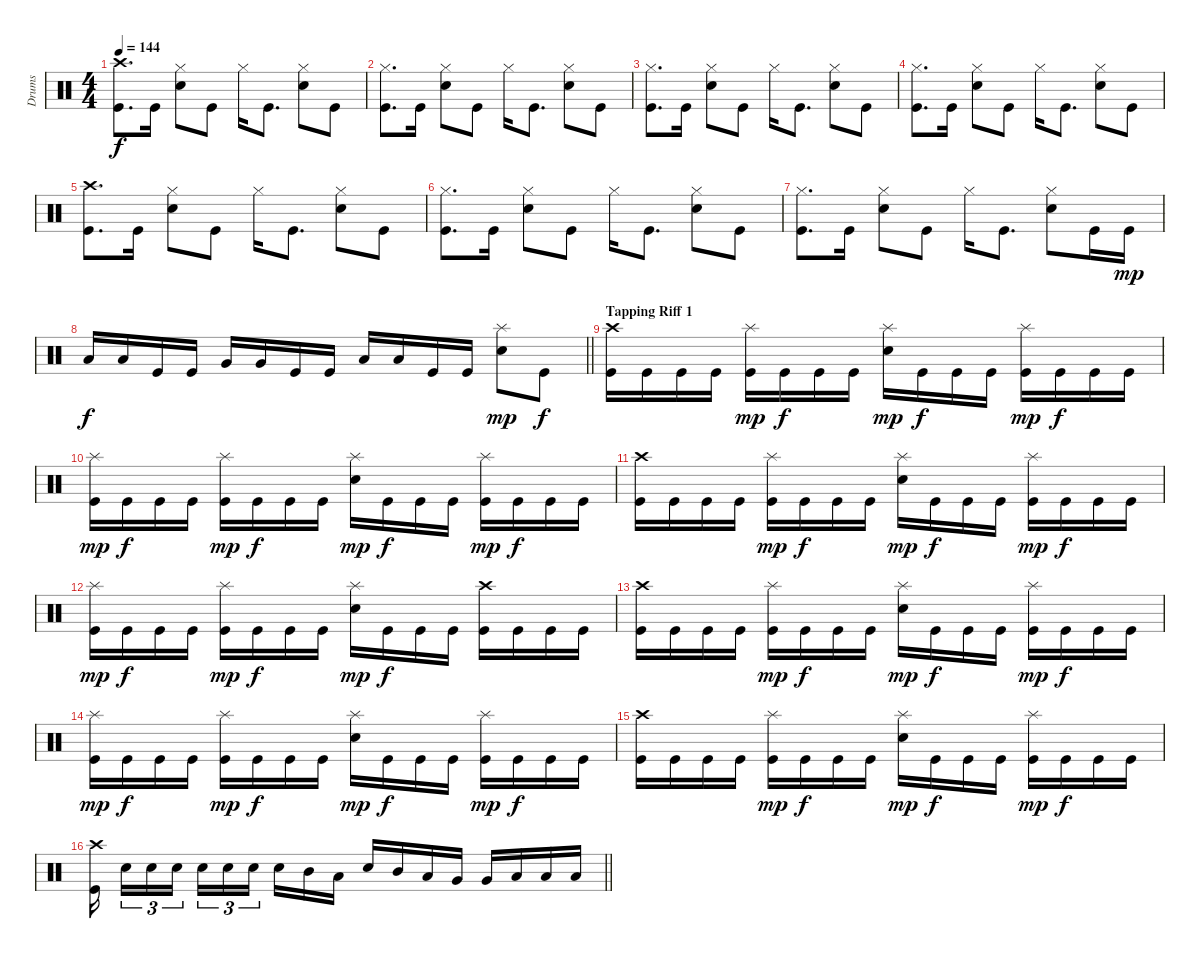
\track ("Drums" "Drums") {instrument percussion}
\staff {score}
\articulation defaults
\ts (4 4)
\tempo 144
\clef neutral
\ks c
("Crash high (hit)" "Kick (hit)").8{d dy f} "Kick (hit)".16 ("Hi-Hat (closed)" "Electric Snare (hit)").8 "Kick (hit)".8 "Hi-Hat (closed)".16 "Kick (hit)".8{d} ("Hi-Hat (closed)" "Electric Snare (hit)").8 "Kick (hit)".8 |
("Hi-Hat (closed)" "Kick (hit)").8{d} "Kick (hit)".16 ("Hi-Hat (closed)" "Electric Snare (hit)").8 "Kick (hit)".8 "Hi-Hat (closed)".16 "Kick (hit)".8{d} ("Hi-Hat (closed)" "Electric Snare (hit)").8 "Kick (hit)".8 |
("Hi-Hat (closed)" "Kick (hit)").8{d} "Kick (hit)".16 ("Hi-Hat (closed)" "Electric Snare (hit)").8 "Kick (hit)".8 "Hi-Hat (closed)".16 "Kick (hit)".8{d} ("Hi-Hat (closed)" "Electric Snare (hit)").8 "Kick (hit)".8 |
("Hi-Hat (closed)" "Kick (hit)").8{d} "Kick (hit)".16 ("Hi-Hat (closed)" "Electric Snare (hit)").8 "Kick (hit)".8 "Hi-Hat (closed)".16 "Kick (hit)".8{d} ("Hi-Hat (closed)" "Electric Snare (hit)").8 "Kick (hit)".8 |
("Crash high (hit)" "Kick (hit)").8{d} "Kick (hit)".16 ("Hi-Hat (closed)" "Electric Snare (hit)").8 "Kick (hit)".8 "Hi-Hat (closed)".16 "Kick (hit)".8{d} ("Hi-Hat (closed)" "Electric Snare (hit)").8 "Kick (hit)".8 |
("Hi-Hat (closed)" "Kick (hit)").8{d} "Kick (hit)".16 ("Hi-Hat (closed)" "Electric Snare (hit)").8 "Kick (hit)".8 "Hi-Hat (closed)".16 "Kick (hit)".8{d} ("Hi-Hat (closed)" "Electric Snare (hit)").8 "Kick (hit)".8 |
("Hi-Hat (closed)" "Kick (hit)").8{d} "Kick (hit)".16 ("Hi-Hat (closed)" "Electric Snare (hit)").8 "Kick (hit)".8 "Hi-Hat (closed)".16 "Kick (hit)".8{d} ("Hi-Hat (closed)" "Electric Snare (hit)").8 "Kick (hit)".16 "Kick (hit)".16{dy mp} |
\barLineRight lightlight "Low Tom (hit)".16{dy f} "Low Tom (hit)".16 "Kick (hit)".16 "Kick (hit)".16 "Very Low Tom (hit)".16 "Very Low Tom (hit)".16 "Kick (hit)".16 "Kick (hit)".16 "Low Floor Tom (hit)".16 "Low Floor Tom (hit)".16 "Kick (hit)".16 "Kick (hit)".16
("Splash (hit)" "Electric Snare (hit)").8{dy mp} "Kick (hit)".8{dy f} |
\section ("" "Tapping Riff 1")
("Crash high (hit)" "Kick (hit)").16 "Kick (hit)".16 "Kick (hit)".16 "Kick (hit)".16 ("Splash (hit)" "Kick (hit)").16{dy mp} "Kick (hit)".16{dy f} "Kick (hit)".16 "Kick (hit)".16 ("Splash (hit)" "Electric Snare (hit)").16{dy mp} "Kick (hit)".16{dy f} "Kick (hit)".16 "Kick (hit)".16 ("Splash (hit)" "Kick (hit)").16{dy mp} "Kick (hit)".16{dy f} "Kick (hit)".16 "Kick (hit)".16 |
("Splash (hit)" "Kick (hit)").16{dy mp} "Kick (hit)".16{dy f} "Kick (hit)".16 "Kick (hit)".16 ("Splash (hit)" "Kick (hit)").16{dy mp} "Kick (hit)".16{dy f} "Kick (hit)".16 "Kick (hit)".16 ("Splash (hit)" "Electric Snare (hit)").16{dy mp} "Kick (hit)".16{dy f} "Kick (hit)".16 "Kick (hit)".16 ("Splash (hit)" "Kick (hit)").16{dy mp} "Kick (hit)".16{dy f} "Kick (hit)".16 "Kick (hit)".16 |
("Crash high (hit)" "Kick (hit)").16 "Kick (hit)".16 "Kick (hit)".16 "Kick (hit)".16 ("Splash (hit)" "Kick (hit)").16{dy mp} "Kick (hit)".16{dy f} "Kick (hit)".16 "Kick (hit)".16 ("Splash (hit)" "Electric Snare (hit)").16{dy mp} "Kick (hit)".16{dy f} "Kick (hit)".16 "Kick (hit)".16 ("Splash (hit)" "Kick (hit)").16{dy mp} "Kick (hit)".16{dy f} "Kick (hit)".16 "Kick (hit)".16 |
("Splash (hit)" "Kick (hit)").16{dy mp} "Kick (hit)".16{dy f} "Kick (hit)".16 "Kick (hit)".16 ("Splash (hit)" "Kick (hit)").16{dy mp} "Kick (hit)".16{dy f} "Kick (hit)".16 "Kick (hit)".16 ("Splash (hit)" "Electric Snare (hit)").16{dy mp} "Kick (hit)".16{dy f} "Kick (hit)".16 "Kick (hit)".16 ("Crash high (hit)" "Kick (hit)").16 "Kick (hit)".16 "Kick (hit)".16 "Kick (hit)".16 |
("Crash high (hit)" "Kick (hit)").16 "Kick (hit)".16 "Kick (hit)".16 "Kick (hit)".16 ("Splash (hit)" "Kick (hit)").16{dy mp} "Kick (hit)".16{dy f} "Kick (hit)".16 "Kick (hit)".16 ("Splash (hit)" "Electric Snare (hit)").16{dy mp} "Kick (hit)".16{dy f} "Kick (hit)".16 "Kick (hit)".16 ("Splash (hit)" "Kick (hit)").16{dy mp} "Kick (hit)".16{dy f} "Kick (hit)".16 "Kick (hit)".16 |
("Splash (hit)" "Kick (hit)").16{dy mp} "Kick (hit)".16{dy f} "Kick (hit)".16 "Kick (hit)".16 ("Splash (hit)" "Kick (hit)").16{dy mp} "Kick (hit)".16{dy f} "Kick (hit)".16 "Kick (hit)".16 ("Splash (hit)" "Electric Snare (hit)").16{dy mp} "Kick (hit)".16{dy f} "Kick (hit)".16 "Kick (hit)".16 ("Splash (hit)" "Kick (hit)").16{dy mp} "Kick (hit)".16{dy f} "Kick (hit)".16 "Kick (hit)".16 |
("Crash high (hit)" "Kick (hit)").16 "Kick (hit)".16 "Kick (hit)".16 "Kick (hit)".16 ("Splash (hit)" "Kick (hit)").16{dy mp} "Kick (hit)".16{dy f} "Kick (hit)".16 "Kick (hit)".16 ("Splash (hit)" "Electric Snare (hit)").16{dy mp} "Kick (hit)".16{dy f} "Kick (hit)".16 "Kick (hit)".16 ("Splash (hit)" "Kick (hit)").16{dy mp} "Kick (hit)".16{dy f} "Kick (hit)".16 "Kick (hit)".16 |
\barLineRight lightlight
("Crash high (hit)" "Kick (hit)").16{beam splitsecondary} "Electric Snare (hit)".16{tu (3 2)} "Electric Snare (hit)".16{tu (3 2)} "Electric Snare (hit)".16{tu (3 2) beam splitsecondary} "Electric Snare (hit)".16{tu (3 2)} "Electric Snare (hit)".16{tu (3 2)} "Electric Snare (hit)".16{tu (3 2) beam splitsecondary} "Electric Snare (hit)".16 "Mid Tom (hit)".16 "Low Tom (hit)".16 "Electric Snare (hit)".16 "Mid Tom (hit)".16 "Low Tom (hit)".16 "Very Low Tom (hit)".16 "Very Low Tom (hit)".16 "Low Floor Tom (hit)".16 "Low Floor Tom (hit)".16 "Low Floor Tom (hit)".16
